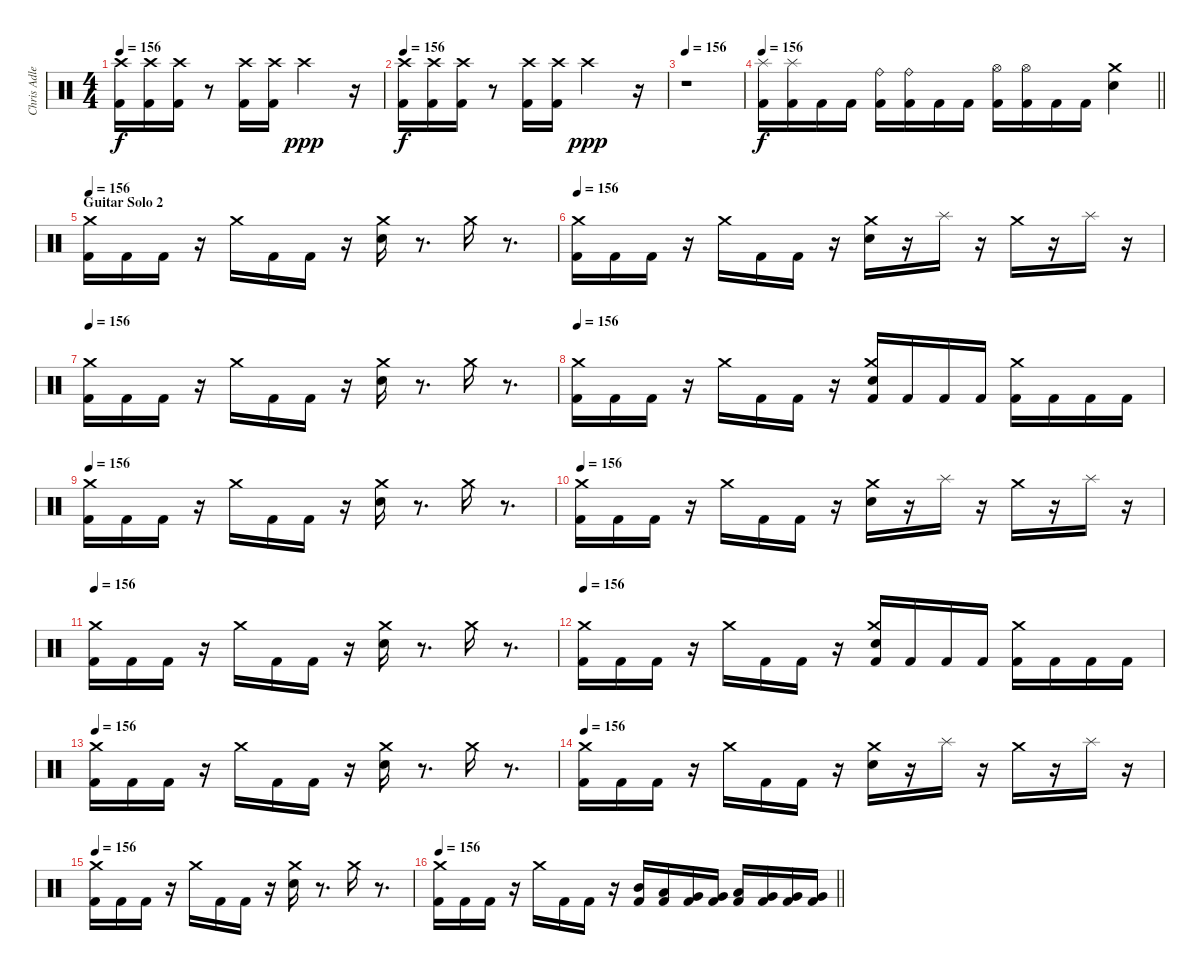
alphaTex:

\track ("Chris Adler" "Chris Adle") {instrument percussion}
\staff {score}
\articulation defaults
\ts (4 4)
\tempo 156
\clef neutral
\ks c
("Crash high (hit)" "Kick (hit) 2").16{dy f} ("Crash high (hit)" "Kick (hit) 2").16 ("Crash high (hit)" "Kick (hit) 2").16 r.8 ("Crash high (hit)" "Kick (hit) 2").16 ("Crash high (hit)" "Kick (hit) 2").16 "Crash high (hit)".2{dy ppp} r.16 |
\tempo 156
("Crash high (hit)" "Kick (hit) 2").16{dy f} ("Crash high (hit)" "Kick (hit) 2").16 ("Crash high (hit)" "Kick (hit) 2").16 r.8 ("Crash high (hit)" "Kick (hit) 2").16 ("Crash high (hit)" "Kick (hit) 2").16 "Crash high (hit)".2{dy ppp} r.16 |
\tempo 156
r.1 |
\tempo 156
\barLineRight lightlight
("Splash (hit)" "Kick (hit) 2").16{dy f} ("Splash (hit)" "Kick (hit) 2").16 "Kick (hit) 2".16 "Kick (hit) 2".16 ("Ride (bell)" "Kick (hit) 2").16 ("Ride (bell)" "Kick (hit) 2").16 "Kick (hit) 2".16 "Kick (hit) 2".16 ("Hi-Hat (open)" "Kick (hit) 2").16 ("Hi-Hat (open)" "Kick (hit) 2").16 "Kick (hit) 2".16 "Kick (hit) 2".16 ("Crash medium (hit)" "Electric Snare (hit)").4 |
\section ("" "Guitar Solo 2")
\tempo 156
("Crash medium (hit)" "Kick (hit) 2").16 "Kick (hit) 2".16 "Kick (hit) 2".16 r.16 "Crash medium (hit)".16 "Kick (hit) 2".16 "Kick (hit) 2".16 r.16 ("Crash medium (hit)" "Electric Snare (hit)").16 r.8{d} "Crash medium (hit)".16 r.8{d} |
\tempo 156
("Crash medium (hit)" "Kick (hit) 2").16 "Kick (hit) 2".16 "Kick (hit) 2".16 r.16 "Crash medium (hit)".16 "Kick (hit) 2".16 "Kick (hit) 2".16 r.16 ("Crash medium (hit)" "Electric Snare (hit)").16 r.16 "Splash (hit)".16 r.16 "Crash medium (hit)".16 r.16 "Splash (hit)".16 r.16 |
\tempo 156
("Crash medium (hit)" "Kick (hit) 2").16 "Kick (hit) 2".16 "Kick (hit) 2".16 r.16 "Crash medium (hit)".16 "Kick (hit) 2".16 "Kick (hit) 2".16 r.16 ("Crash medium (hit)" "Electric Snare (hit)").16 r.8{d} "Crash medium (hit)".16 r.8{d} |
\tempo 156
("Crash medium (hit)" "Kick (hit) 2").16 "Kick (hit) 2".16 "Kick (hit) 2".16 r.16 "Crash medium (hit)".16 "Kick (hit) 2".16 "Kick (hit) 2".16 r.16 ("Crash medium (hit)" "Electric Snare (hit)" "Kick (hit) 2").16 "Kick (hit) 2".16 "Kick (hit) 2".16 "Kick (hit) 2".16 ("Crash medium (hit)" "Kick (hit) 2").16 "Kick (hit) 2".16 "Kick (hit) 2".16 "Kick (hit) 2".16 |
\tempo 156
("Crash medium (hit)" "Kick (hit) 2").16 "Kick (hit) 2".16 "Kick (hit) 2".16 r.16 "Crash medium (hit)".16 "Kick (hit) 2".16 "Kick (hit) 2".16 r.16 ("Crash medium (hit)" "Electric Snare (hit)").16 r.8{d} "Crash medium (hit)".16 r.8{d} |
\tempo 156
("Crash medium (hit)" "Kick (hit) 2").16 "Kick (hit) 2".16 "Kick (hit) 2".16 r.16 "Crash medium (hit)".16 "Kick (hit) 2".16 "Kick (hit) 2".16 r.16 ("Crash medium (hit)" "Electric Snare (hit)").16 r.16 "Splash (hit)".16 r.16 "Crash medium (hit)".16 r.16 "Splash (hit)".16 r.16 |
\tempo 156
("Crash medium (hit)" "Kick (hit) 2").16 "Kick (hit) 2".16 "Kick (hit) 2".16 r.16 "Crash medium (hit)".16 "Kick (hit) 2".16 "Kick (hit) 2".16 r.16 ("Crash medium (hit)" "Electric Snare (hit)").16 r.8{d} "Crash medium (hit)".16 r.8{d} |
\tempo 156
("Crash medium (hit)" "Kick (hit) 2").16 "Kick (hit) 2".16 "Kick (hit) 2".16 r.16 "Crash medium (hit)".16 "Kick (hit) 2".16 "Kick (hit) 2".16 r.16 ("Crash medium (hit)" "Electric Snare (hit)" "Kick (hit) 2").16 "Kick (hit) 2".16 "Kick (hit) 2".16 "Kick (hit) 2".16 ("Crash medium (hit)" "Kick (hit) 2").16 "Kick (hit) 2".16 "Kick (hit) 2".16 "Kick (hit) 2".16 |
\tempo 156
("Crash medium (hit)" "Kick (hit) 2").16 "Kick (hit) 2".16 "Kick (hit) 2".16 r.16 "Crash medium (hit)".16 "Kick (hit) 2".16 "Kick (hit) 2".16 r.16 ("Crash medium (hit)" "Electric Snare (hit)").16 r.8{d} "Crash medium (hit)".16 r.8{d} |
\tempo 156
("Crash medium (hit)" "Kick (hit) 2").16 "Kick (hit) 2".16 "Kick (hit) 2".16 r.16 "Crash medium (hit)".16 "Kick (hit) 2".16 "Kick (hit) 2".16 r.16 ("Crash medium (hit)" "Electric Snare (hit)").16 r.16 "Splash (hit)".16 r.16 "Crash medium (hit)".16 r.16 "Splash (hit)".16 r.16 |
\tempo 156
("Crash medium (hit)" "Kick (hit) 2").16 "Kick (hit) 2".16 "Kick (hit) 2".16 r.16 "Crash medium (hit)".16 "Kick (hit) 2".16 "Kick (hit) 2".16 r.16 ("Crash medium (hit)" "Electric Snare (hit)").16 r.8{d} "Crash medium (hit)".16 r.8{d} |
\tempo 156
\barLineRight lightlight
("Crash medium (hit)" "Kick (hit) 2").16 "Kick (hit) 2".16 "Kick (hit) 2".16 r.16 "Crash medium (hit)".16 "Kick (hit) 2".16 "Kick (hit) 2".16 r.16 ("Mid Tom (hit)" "Kick (hit) 2").16 ("Low Tom (hit)" "Kick (hit) 2").16 ("Very Low Tom (hit)" "Kick (hit) 2").16 ("Very Low Tom (hit)" "Kick (hit) 2").16 ("Low Tom (hit)" "Kick (hit) 2").16 ("Very Low Tom (hit)" "Kick (hit) 2").16 ("Very Low Tom (hit)" "Kick (hit) 2").16 ("Very Low Tom (hit)" "Kick (hit) 2").16
